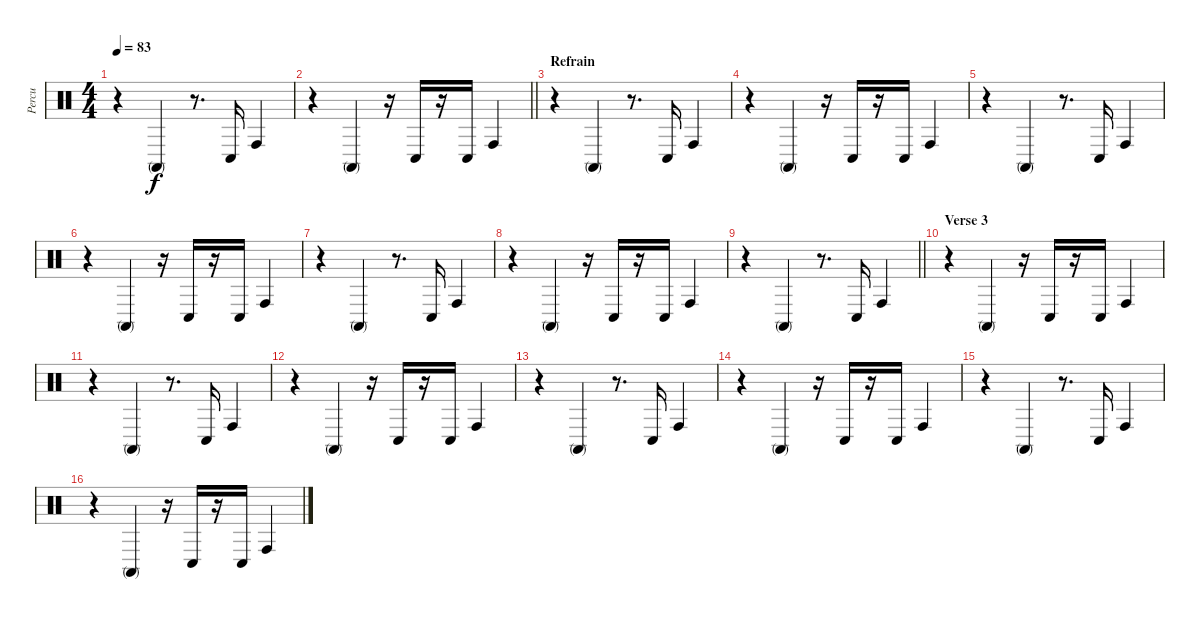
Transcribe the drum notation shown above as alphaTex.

\track ("Percu" "Percu") {instrument percussion}
\staff {score}
\articulation defaults
\ts (4 4)
\tempo 83
\clef neutral
\ks c
r.4{dy f} "Conga high (mute)".4 r.8{d} "Conga low (hit)".16 "Conga high (hit)".4 |
\barLineRight lightlight
r.4 "Conga high (mute)".4 r.16 "Conga low (hit)".16 r.16 "Conga low (hit)".16 "Conga high (hit)".4 |
\section ("" "Refrain")
r.4 "Conga high (mute)".4 r.8{d} "Conga low (hit)".16 "Conga high (hit)".4 |
r.4 "Conga high (mute)".4 r.16 "Conga low (hit)".16 r.16 "Conga low (hit)".16 "Conga high (hit)".4 |
r.4 "Conga high (mute)".4 r.8{d} "Conga low (hit)".16 "Conga high (hit)".4 |
r.4 "Conga high (mute)".4 r.16 "Conga low (hit)".16 r.16 "Conga low (hit)".16 "Conga high (hit)".4 |
r.4 "Conga high (mute)".4 r.8{d} "Conga low (hit)".16 "Conga high (hit)".4 |
r.4 "Conga high (mute)".4 r.16 "Conga low (hit)".16 r.16 "Conga low (hit)".16 "Conga high (hit)".4 |
\barLineRight lightlight
r.4 "Conga high (mute)".4 r.8{d} "Conga low (hit)".16 "Conga high (hit)".4 |
\section ("" "Verse 3")
r.4 "Conga high (mute)".4 r.16 "Conga low (hit)".16 r.16 "Conga low (hit)".16 "Conga high (hit)".4 |
r.4 "Conga high (mute)".4 r.8{d} "Conga low (hit)".16 "Conga high (hit)".4 |
r.4 "Conga high (mute)".4 r.16 "Conga low (hit)".16 r.16 "Conga low (hit)".16 "Conga high (hit)".4 |
r.4 "Conga high (mute)".4 r.8{d} "Conga low (hit)".16 "Conga high (hit)".4 |
r.4 "Conga high (mute)".4 r.16 "Conga low (hit)".16 r.16 "Conga low (hit)".16 "Conga high (hit)".4 |
r.4 "Conga high (mute)".4 r.8{d} "Conga low (hit)".16 "Conga high (hit)".4 |
r.4 "Conga high (mute)".4 r.16 "Conga low (hit)".16 r.16 "Conga low (hit)".16 "Conga high (hit)".4
